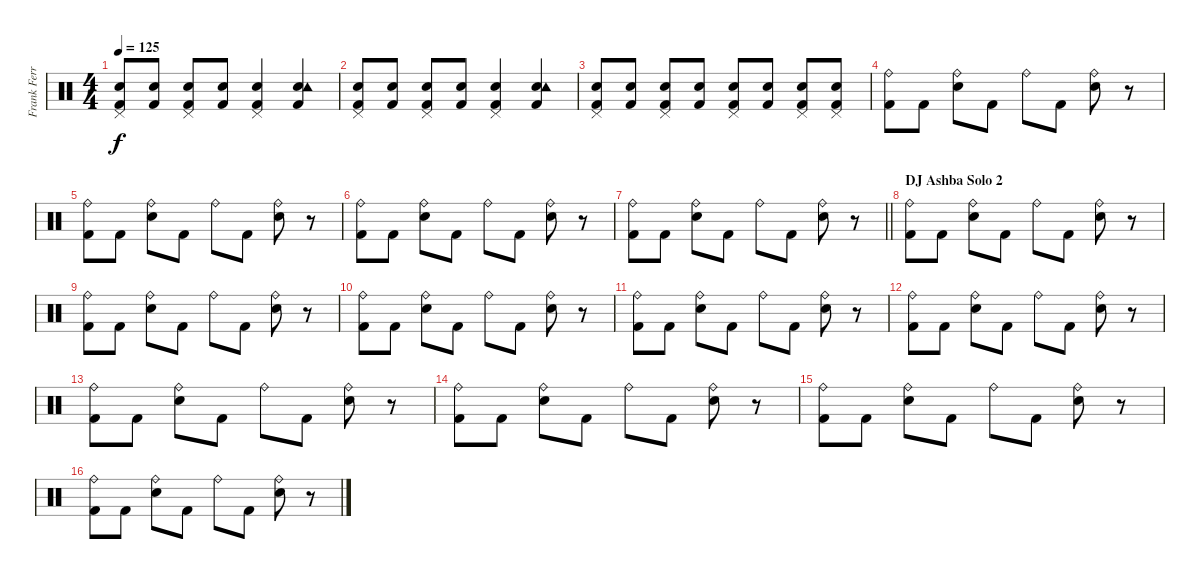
\track ("Frank Ferrer" "Frank Ferr") {instrument percussion}
\staff {score}
\articulation defaults
\ts (4 4)
\tempo 125
\clef neutral
\ks c
("Kick (hit) 2" "Electric Snare (hit)" "Pedal Hi-Hat (hit)").8{dy f} ("Kick (hit) 2" "Electric Snare (hit)").8 ("Kick (hit) 2" "Electric Snare (hit)" "Pedal Hi-Hat (hit)").8 ("Kick (hit) 2" "Electric Snare (hit)").8 ("Kick (hit) 2" "Electric Snare (hit)" "Pedal Hi-Hat (hit)").4 ("Kick (hit) 2" "Electric Snare (hit)" "Tambourine (hit)").4 |
("Kick (hit) 2" "Electric Snare (hit)" "Pedal Hi-Hat (hit)").8 ("Kick (hit) 2" "Electric Snare (hit)").8 ("Kick (hit) 2" "Electric Snare (hit)" "Pedal Hi-Hat (hit)").8 ("Kick (hit) 2" "Electric Snare (hit)").8 ("Kick (hit) 2" "Electric Snare (hit)" "Pedal Hi-Hat (hit)").4 ("Kick (hit) 2" "Electric Snare (hit)" "Tambourine (hit)").4 |
("Kick (hit) 2" "Electric Snare (hit)" "Pedal Hi-Hat (hit)").8 ("Kick (hit) 2" "Electric Snare (hit)").8 ("Kick (hit) 2" "Electric Snare (hit)" "Pedal Hi-Hat (hit)").8 ("Kick (hit) 2" "Electric Snare (hit)").8 ("Kick (hit) 2" "Electric Snare (hit)" "Pedal Hi-Hat (hit)").8 ("Kick (hit) 2" "Electric Snare (hit)").8 ("Kick (hit) 2" "Electric Snare (hit)" "Pedal Hi-Hat (hit)").8 ("Kick (hit) 2" "Electric Snare (hit)" "Pedal Hi-Hat (hit)").8 |
("Kick (hit) 2" "Ride (bell)").8 "Kick (hit) 2".8 ("Electric Snare (hit)" "Ride (bell)").8 "Kick (hit) 2".8 "Ride (bell)".8 "Kick (hit) 2".8 ("Electric Snare (hit)" "Ride (bell)").8 r.8 |
("Kick (hit) 2" "Ride (bell)").8 "Kick (hit) 2".8 ("Electric Snare (hit)" "Ride (bell)").8 "Kick (hit) 2".8 "Ride (bell)".8 "Kick (hit) 2".8 ("Electric Snare (hit)" "Ride (bell)").8 r.8 |
("Kick (hit) 2" "Ride (bell)").8 "Kick (hit) 2".8 ("Electric Snare (hit)" "Ride (bell)").8 "Kick (hit) 2".8 "Ride (bell)".8 "Kick (hit) 2".8 ("Electric Snare (hit)" "Ride (bell)").8 r.8 |
\barLineRight lightlight
("Kick (hit) 2" "Ride (bell)").8 "Kick (hit) 2".8 ("Electric Snare (hit)" "Ride (bell)").8 "Kick (hit) 2".8 "Ride (bell)".8 "Kick (hit) 2".8 ("Electric Snare (hit)" "Ride (bell)").8 r.8 |
\section ("" "DJ Ashba Solo 2")
("Kick (hit) 2" "Ride (bell)").8 "Kick (hit) 2".8 ("Electric Snare (hit)" "Ride (bell)").8 "Kick (hit) 2".8 "Ride (bell)".8 "Kick (hit) 2".8 ("Electric Snare (hit)" "Ride (bell)").8 r.8 |
("Kick (hit) 2" "Ride (bell)").8 "Kick (hit) 2".8 ("Electric Snare (hit)" "Ride (bell)").8 "Kick (hit) 2".8 "Ride (bell)".8 "Kick (hit) 2".8 ("Electric Snare (hit)" "Ride (bell)").8 r.8 |
("Kick (hit) 2" "Ride (bell)").8 "Kick (hit) 2".8 ("Electric Snare (hit)" "Ride (bell)").8 "Kick (hit) 2".8 "Ride (bell)".8 "Kick (hit) 2".8 ("Electric Snare (hit)" "Ride (bell)").8 r.8 |
("Kick (hit) 2" "Ride (bell)").8 "Kick (hit) 2".8 ("Electric Snare (hit)" "Ride (bell)").8 "Kick (hit) 2".8 "Ride (bell)".8 "Kick (hit) 2".8 ("Electric Snare (hit)" "Ride (bell)").8 r.8 |
("Kick (hit) 2" "Ride (bell)").8 "Kick (hit) 2".8 ("Electric Snare (hit)" "Ride (bell)").8 "Kick (hit) 2".8 "Ride (bell)".8 "Kick (hit) 2".8 ("Electric Snare (hit)" "Ride (bell)").8 r.8 |
("Kick (hit) 2" "Ride (bell)").8 "Kick (hit) 2".8 ("Electric Snare (hit)" "Ride (bell)").8 "Kick (hit) 2".8 "Ride (bell)".8 "Kick (hit) 2".8 ("Electric Snare (hit)" "Ride (bell)").8 r.8 |
("Kick (hit) 2" "Ride (bell)").8 "Kick (hit) 2".8 ("Electric Snare (hit)" "Ride (bell)").8 "Kick (hit) 2".8 "Ride (bell)".8 "Kick (hit) 2".8 ("Electric Snare (hit)" "Ride (bell)").8 r.8 |
("Kick (hit) 2" "Ride (bell)").8 "Kick (hit) 2".8 ("Electric Snare (hit)" "Ride (bell)").8 "Kick (hit) 2".8 "Ride (bell)".8 "Kick (hit) 2".8 ("Electric Snare (hit)" "Ride (bell)").8 r.8 |
("Kick (hit) 2" "Ride (bell)").8 "Kick (hit) 2".8 ("Electric Snare (hit)" "Ride (bell)").8 "Kick (hit) 2".8 "Ride (bell)".8 "Kick (hit) 2".8 ("Electric Snare (hit)" "Ride (bell)").8 r.8
